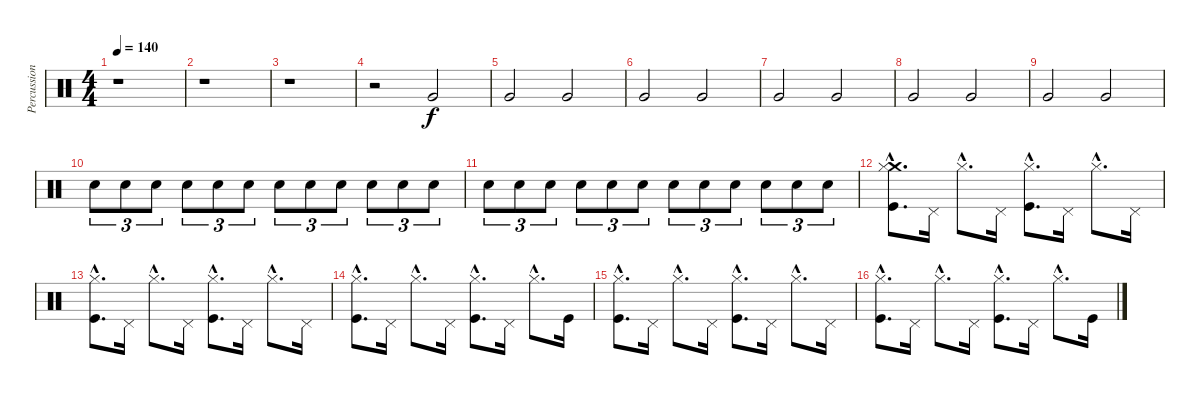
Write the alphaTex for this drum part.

\track ("Percussions" "Percussion") {instrument percussion}
\staff {score}
\articulation defaults
\ts (4 4)
\tempo 140
\clef neutral
\ks c
r.1{dy f} |
r.1 |
r.1 |
r.2 "Very Low Tom (hit)".2 |
"Very Low Tom (hit)".2 "Very Low Tom (hit)".2 |
"Very Low Tom (hit)".2 "Very Low Tom (hit)".2 |
"Very Low Tom (hit)".2 "Very Low Tom (hit)".2 |
"Very Low Tom (hit)".2 "Very Low Tom (hit)".2 |
"Very Low Tom (hit)".2 "Very Low Tom (hit)".2 |
"Electric Snare (hit)".8{tu (3 2) volume 3} "Electric Snare (hit)".8{tu (3 2)} "Electric Snare (hit)".8{tu (3 2)} "Electric Snare (hit)".8{tu (3 2) volume 5} "Electric Snare (hit)".8{tu (3 2)} "Electric Snare (hit)".8{tu (3 2)} "Electric Snare (hit)".8{tu (3 2) volume 7} "Electric Snare (hit)".8{tu (3 2)} "Electric Snare (hit)".8{tu (3 2)} "Electric Snare (hit)".8{tu (3 2) volume 9} "Electric Snare (hit)".8{tu (3 2)} "Electric Snare (hit)".8{tu (3 2)} |
"Electric Snare (hit)".8{tu (3 2) volume 10} "Electric Snare (hit)".8{tu (3 2)} "Electric Snare (hit)".8{tu (3 2)} "Electric Snare (hit)".8{tu (3 2)} "Electric Snare (hit)".8{tu (3 2)} "Electric Snare (hit)".8{tu (3 2)} "Electric Snare (hit)".8{tu (3 2)} "Electric Snare (hit)".8{tu (3 2)} "Electric Snare (hit)".8{tu (3 2)} "Electric Snare (hit)".8{tu (3 2)} "Electric Snare (hit)".8{tu (3 2)} "Electric Snare (hit)".8{tu (3 2)} |
("Crash medium (hit)"{hac} "Hi-Hat (closed)"{hac} "Kick (hit)"{hac}).8{d} "Pedal Hi-Hat (hit)".16 "Hi-Hat (closed)"{hac}.8{d} "Pedal Hi-Hat (hit)".16 ("Hi-Hat (closed)"{hac} "Kick (hit)"{hac}).8{d} "Pedal Hi-Hat (hit)".16 "Hi-Hat (closed)"{hac}.8{d} "Pedal Hi-Hat (hit)".16 |
("Hi-Hat (closed)"{hac} "Kick (hit)"{hac}).8{d} "Pedal Hi-Hat (hit)".16 "Hi-Hat (closed)"{hac}.8{d} "Pedal Hi-Hat (hit)".16 ("Hi-Hat (closed)"{hac} "Kick (hit)"{hac}).8{d} "Pedal Hi-Hat (hit)".16 "Hi-Hat (closed)"{hac}.8{d} "Pedal Hi-Hat (hit)".16 |
("Hi-Hat (closed)"{hac} "Kick (hit)"{hac}).8{d} "Pedal Hi-Hat (hit)".16 "Hi-Hat (closed)"{hac}.8{d} "Pedal Hi-Hat (hit)".16 ("Hi-Hat (closed)"{hac} "Kick (hit)"{hac}).8{d} "Pedal Hi-Hat (hit)".16 "Hi-Hat (closed)"{hac}.8{d} "Kick (hit)".16 |
("Hi-Hat (closed)"{hac} "Kick (hit)"{hac}).8{d} "Pedal Hi-Hat (hit)".16 "Hi-Hat (closed)"{hac}.8{d} "Pedal Hi-Hat (hit)".16 ("Hi-Hat (closed)"{hac} "Kick (hit)"{hac}).8{d} "Pedal Hi-Hat (hit)".16 "Hi-Hat (closed)"{hac}.8{d} "Pedal Hi-Hat (hit)".16 |
("Hi-Hat (closed)"{hac} "Kick (hit)"{hac}).8{d} "Pedal Hi-Hat (hit)".16 "Hi-Hat (closed)"{hac}.8{d} "Pedal Hi-Hat (hit)".16 ("Hi-Hat (closed)"{hac} "Kick (hit)"{hac}).8{d} "Pedal Hi-Hat (hit)".16 "Hi-Hat (closed)"{hac}.8{d} "Kick (hit)".16
